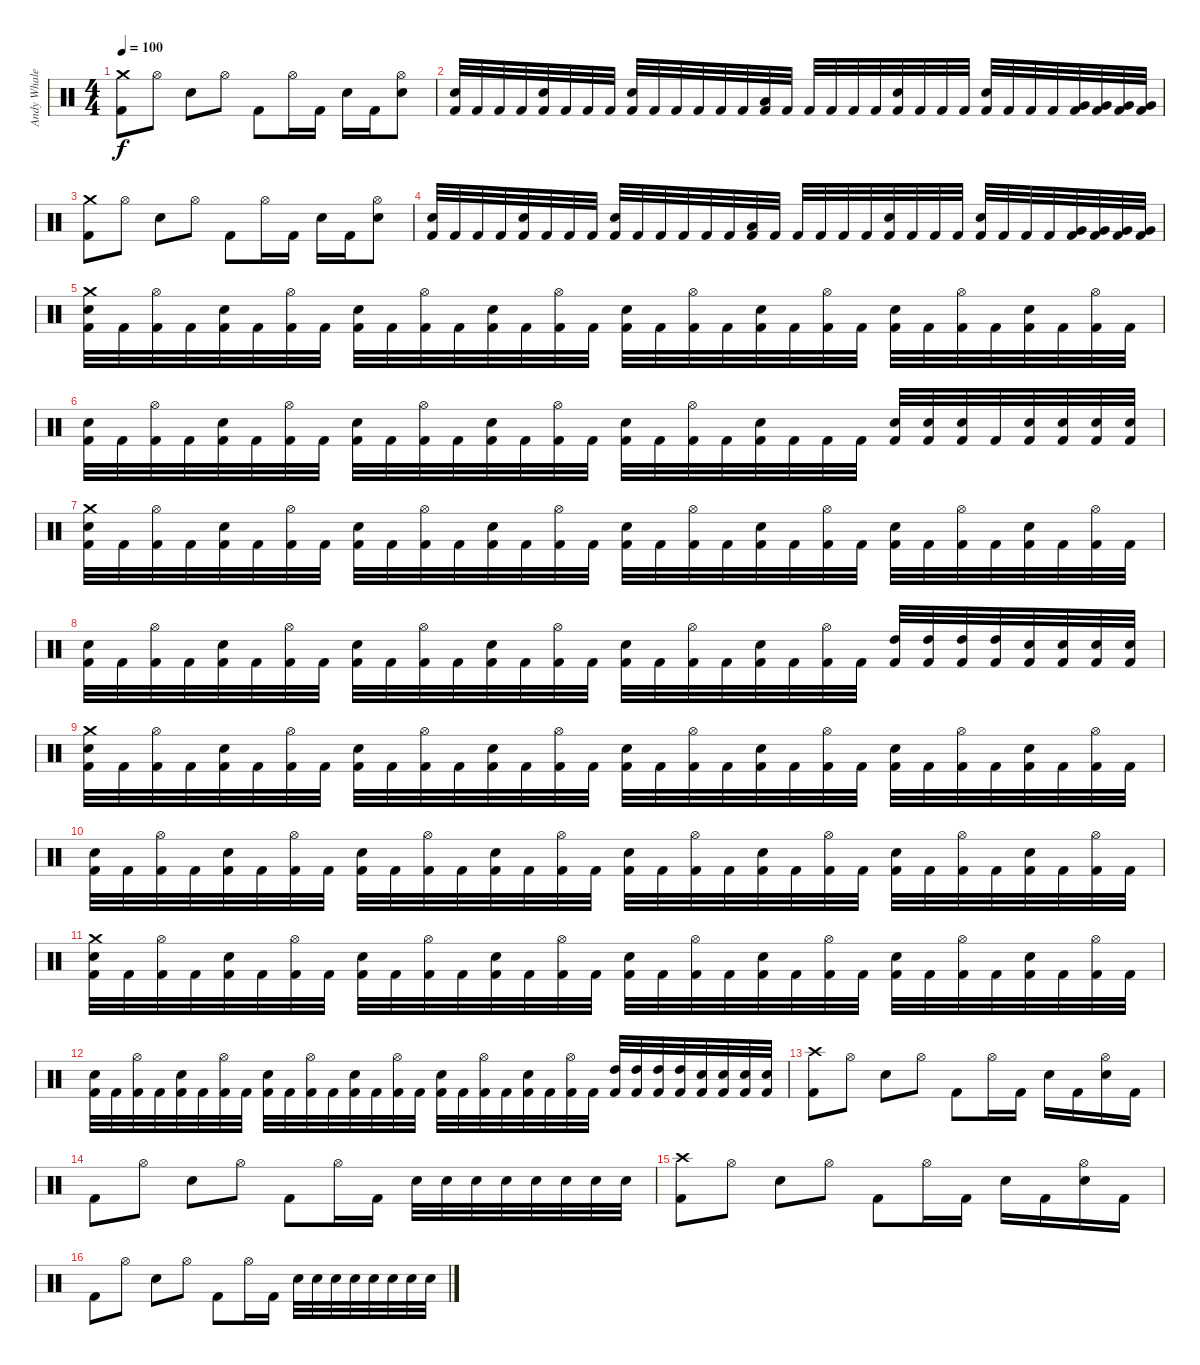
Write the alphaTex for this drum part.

\track ("Andy Whale" "Andy Whale") {instrument percussion}
\staff {score}
\articulation defaults
\ts (4 4)
\tempo 100
\clef neutral
\ks c
("Crash medium (hit)" "Kick (hit) 2").8{dy f} "Hi-Hat (open)".8 "Snare (hit) 2".8 "Hi-Hat (open)".8 "Kick (hit) 2".8 "Hi-Hat (open)".16 "Kick (hit) 2".16 "Snare (hit) 2".16 "Kick (hit) 2".16 ("Hi-Hat (open)" "Snare (hit) 2").8 |
("Snare (hit) 2" "Kick (hit) 2").32 "Kick (hit) 2".32 "Kick (hit) 2".32 "Kick (hit) 2".32 ("Snare (hit) 2" "Kick (hit) 2").32 "Kick (hit) 2".32 "Kick (hit) 2".32 "Kick (hit) 2".32 ("Snare (hit) 2" "Kick (hit) 2").32 "Kick (hit) 2".32 "Kick (hit) 2".32 "Kick (hit) 2".32 "Kick (hit) 2".32 "Kick (hit) 2".32 ("Low Floor Tom (hit)" "Kick (hit) 2").32 "Kick (hit) 2".32 "Kick (hit) 2".32 "Kick (hit) 2".32 "Kick (hit) 2".32 "Kick (hit) 2".32 ("Snare (hit) 2" "Kick (hit) 2").32 "Kick (hit) 2".32 "Kick (hit) 2".32 "Kick (hit) 2".32 ("Snare (hit) 2" "Kick (hit) 2").32 "Kick (hit) 2".32 "Kick (hit) 2".32 "Kick (hit) 2".32 ("Very Low Tom (hit)" "Kick (hit) 2").32 ("Very Low Tom (hit)" "Kick (hit) 2").32 ("Very Low Tom (hit)" "Kick (hit) 2").32 ("Very Low Tom (hit)" "Kick (hit) 2").32 |
("Crash medium (hit)" "Kick (hit) 2").8 "Hi-Hat (open)".8 "Snare (hit) 2".8 "Hi-Hat (open)".8 "Kick (hit) 2".8 "Hi-Hat (open)".16 "Kick (hit) 2".16 "Snare (hit) 2".16 "Kick (hit) 2".16 ("Hi-Hat (open)" "Snare (hit) 2").8 |
("Snare (hit) 2" "Kick (hit) 2").32 "Kick (hit) 2".32 "Kick (hit) 2".32 "Kick (hit) 2".32 ("Snare (hit) 2" "Kick (hit) 2").32 "Kick (hit) 2".32 "Kick (hit) 2".32 "Kick (hit) 2".32 ("Snare (hit) 2" "Kick (hit) 2").32 "Kick (hit) 2".32 "Kick (hit) 2".32 "Kick (hit) 2".32 "Kick (hit) 2".32 "Kick (hit) 2".32 ("Low Floor Tom (hit)" "Kick (hit) 2").32 "Kick (hit) 2".32 "Kick (hit) 2".32 "Kick (hit) 2".32 "Kick (hit) 2".32 "Kick (hit) 2".32 ("Snare (hit) 2" "Kick (hit) 2").32 "Kick (hit) 2".32 "Kick (hit) 2".32 "Kick (hit) 2".32 ("Snare (hit) 2" "Kick (hit) 2").32 "Kick (hit) 2".32 "Kick (hit) 2".32 "Kick (hit) 2".32 ("Very Low Tom (hit)" "Kick (hit) 2").32 ("Very Low Tom (hit)" "Kick (hit) 2").32 ("Very Low Tom (hit)" "Kick (hit) 2").32 ("Very Low Tom (hit)" "Kick (hit) 2").32 |
("Crash medium (hit)" "Snare (hit) 2" "Kick (hit) 2").32 "Kick (hit) 2".32 ("Hi-Hat (open)" "Kick (hit) 2").32 "Kick (hit) 2".32 ("Snare (hit) 2" "Kick (hit) 2").32 "Kick (hit) 2".32 ("Hi-Hat (open)" "Kick (hit) 2").32 "Kick (hit) 2".32 ("Snare (hit) 2" "Kick (hit) 2").32 "Kick (hit) 2".32 ("Hi-Hat (open)" "Kick (hit) 2").32 "Kick (hit) 2".32 ("Snare (hit) 2" "Kick (hit) 2").32 "Kick (hit) 2".32 ("Hi-Hat (open)" "Kick (hit) 2").32 "Kick (hit) 2".32 ("Snare (hit) 2" "Kick (hit) 2").32 "Kick (hit) 2".32 ("Hi-Hat (open)" "Kick (hit) 2").32 "Kick (hit) 2".32 ("Snare (hit) 2" "Kick (hit) 2").32 "Kick (hit) 2".32 ("Hi-Hat (open)" "Kick (hit) 2").32 "Kick (hit) 2".32 ("Snare (hit) 2" "Kick (hit) 2").32 "Kick (hit) 2".32 ("Hi-Hat (open)" "Kick (hit) 2").32 "Kick (hit) 2".32 ("Snare (hit) 2" "Kick (hit) 2").32 "Kick (hit) 2".32 ("Hi-Hat (open)" "Kick (hit) 2").32 "Kick (hit) 2".32 |
("Snare (hit) 2" "Kick (hit) 2").32 "Kick (hit) 2".32 ("Hi-Hat (open)" "Kick (hit) 2").32 "Kick (hit) 2".32 ("Snare (hit) 2" "Kick (hit) 2").32 "Kick (hit) 2".32 ("Hi-Hat (open)" "Kick (hit) 2").32 "Kick (hit) 2".32 ("Snare (hit) 2" "Kick (hit) 2").32 "Kick (hit) 2".32 ("Hi-Hat (open)" "Kick (hit) 2").32 "Kick (hit) 2".32 ("Snare (hit) 2" "Kick (hit) 2").32 "Kick (hit) 2".32 ("Hi-Hat (open)" "Kick (hit) 2").32 "Kick (hit) 2".32 ("Snare (hit) 2" "Kick (hit) 2").32 "Kick (hit) 2".32 ("Hi-Hat (open)" "Kick (hit) 2").32 "Kick (hit) 2".32 ("Snare (hit) 2" "Kick (hit) 2").32 "Kick (hit) 2".32 "Kick (hit) 2".32 "Kick (hit) 2".32 ("Snare (hit) 2" "Kick (hit) 2").32 ("Snare (hit) 2" "Kick (hit) 2").32 ("Snare (hit) 2" "Kick (hit) 2").32 "Kick (hit) 2".32 ("Snare (hit) 2" "Kick (hit) 2").32 ("Snare (hit) 2" "Kick (hit) 2").32 ("Snare (hit) 2" "Kick (hit) 2").32 ("Snare (hit) 2" "Kick (hit) 2").32 |
("Crash medium (hit)" "Snare (hit) 2" "Kick (hit) 2").32 "Kick (hit) 2".32 ("Hi-Hat (open)" "Kick (hit) 2").32 "Kick (hit) 2".32 ("Snare (hit) 2" "Kick (hit) 2").32 "Kick (hit) 2".32 ("Hi-Hat (open)" "Kick (hit) 2").32 "Kick (hit) 2".32 ("Snare (hit) 2" "Kick (hit) 2").32 "Kick (hit) 2".32 ("Hi-Hat (open)" "Kick (hit) 2").32 "Kick (hit) 2".32 ("Snare (hit) 2" "Kick (hit) 2").32 "Kick (hit) 2".32 ("Hi-Hat (open)" "Kick (hit) 2").32 "Kick (hit) 2".32 ("Snare (hit) 2" "Kick (hit) 2").32 "Kick (hit) 2".32 ("Hi-Hat (open)" "Kick (hit) 2").32 "Kick (hit) 2".32 ("Snare (hit) 2" "Kick (hit) 2").32 "Kick (hit) 2".32 ("Hi-Hat (open)" "Kick (hit) 2").32 "Kick (hit) 2".32 ("Snare (hit) 2" "Kick (hit) 2").32 "Kick (hit) 2".32 ("Hi-Hat (open)" "Kick (hit) 2").32 "Kick (hit) 2".32 ("Snare (hit) 2" "Kick (hit) 2").32 "Kick (hit) 2".32 ("Hi-Hat (open)" "Kick (hit) 2").32 "Kick (hit) 2".32 |
("Snare (hit) 2" "Kick (hit) 2").32 "Kick (hit) 2".32 ("Hi-Hat (open)" "Kick (hit) 2").32 "Kick (hit) 2".32 ("Snare (hit) 2" "Kick (hit) 2").32 "Kick (hit) 2".32 ("Hi-Hat (open)" "Kick (hit) 2").32 "Kick (hit) 2".32 ("Snare (hit) 2" "Kick (hit) 2").32 "Kick (hit) 2".32 ("Hi-Hat (open)" "Kick (hit) 2").32 "Kick (hit) 2".32 ("Snare (hit) 2" "Kick (hit) 2").32 "Kick (hit) 2".32 ("Hi-Hat (open)" "Kick (hit) 2").32 "Kick (hit) 2".32 ("Snare (hit) 2" "Kick (hit) 2").32 "Kick (hit) 2".32 ("Hi-Hat (open)" "Kick (hit) 2").32 "Kick (hit) 2".32 ("Snare (hit) 2" "Kick (hit) 2").32 "Kick (hit) 2".32 ("Hi-Hat (open)" "Kick (hit) 2").32 "Kick (hit) 2".32 ("High Tom (hit)" "Kick (hit) 2").32 ("High Tom (hit)" "Kick (hit) 2").32 ("High Tom (hit)" "Kick (hit) 2").32 ("High Tom (hit)" "Kick (hit) 2").32 ("Snare (hit) 2" "Kick (hit) 2").32 ("Snare (hit) 2" "Kick (hit) 2").32 ("Snare (hit) 2" "Kick (hit) 2").32 ("Snare (hit) 2" "Kick (hit) 2").32 |
("Crash medium (hit)" "Snare (hit) 2" "Kick (hit) 2").32 "Kick (hit) 2".32 ("Hi-Hat (open)" "Kick (hit) 2").32 "Kick (hit) 2".32 ("Snare (hit) 2" "Kick (hit) 2").32 "Kick (hit) 2".32 ("Hi-Hat (open)" "Kick (hit) 2").32 "Kick (hit) 2".32 ("Snare (hit) 2" "Kick (hit) 2").32 "Kick (hit) 2".32 ("Hi-Hat (open)" "Kick (hit) 2").32 "Kick (hit) 2".32 ("Snare (hit) 2" "Kick (hit) 2").32 "Kick (hit) 2".32 ("Hi-Hat (open)" "Kick (hit) 2").32 "Kick (hit) 2".32 ("Snare (hit) 2" "Kick (hit) 2").32 "Kick (hit) 2".32 ("Hi-Hat (open)" "Kick (hit) 2").32 "Kick (hit) 2".32 ("Snare (hit) 2" "Kick (hit) 2").32 "Kick (hit) 2".32 ("Hi-Hat (open)" "Kick (hit) 2").32 "Kick (hit) 2".32 ("Snare (hit) 2" "Kick (hit) 2").32 "Kick (hit) 2".32 ("Hi-Hat (open)" "Kick (hit) 2").32 "Kick (hit) 2".32 ("Snare (hit) 2" "Kick (hit) 2").32 "Kick (hit) 2".32 ("Hi-Hat (open)" "Kick (hit) 2").32 "Kick (hit) 2".32 |
("Snare (hit) 2" "Kick (hit) 2").32 "Kick (hit) 2".32 ("Hi-Hat (open)" "Kick (hit) 2").32 "Kick (hit) 2".32 ("Snare (hit) 2" "Kick (hit) 2").32 "Kick (hit) 2".32 ("Hi-Hat (open)" "Kick (hit) 2").32 "Kick (hit) 2".32 ("Snare (hit) 2" "Kick (hit) 2").32 "Kick (hit) 2".32 ("Hi-Hat (open)" "Kick (hit) 2").32 "Kick (hit) 2".32 ("Snare (hit) 2" "Kick (hit) 2").32 "Kick (hit) 2".32 ("Hi-Hat (open)" "Kick (hit) 2").32 "Kick (hit) 2".32 ("Snare (hit) 2" "Kick (hit) 2").32 "Kick (hit) 2".32 ("Hi-Hat (open)" "Kick (hit) 2").32 "Kick (hit) 2".32 ("Snare (hit) 2" "Kick (hit) 2").32 "Kick (hit) 2".32 ("Hi-Hat (open)" "Kick (hit) 2").32 "Kick (hit) 2".32 ("Snare (hit) 2" "Kick (hit) 2").32 "Kick (hit) 2".32 ("Hi-Hat (open)" "Kick (hit) 2").32 "Kick (hit) 2".32 ("Snare (hit) 2" "Kick (hit) 2").32 "Kick (hit) 2".32 ("Hi-Hat (open)" "Kick (hit) 2").32 "Kick (hit) 2".32 |
("Crash medium (hit)" "Snare (hit) 2" "Kick (hit) 2").32 "Kick (hit) 2".32 ("Hi-Hat (open)" "Kick (hit) 2").32 "Kick (hit) 2".32 ("Snare (hit) 2" "Kick (hit) 2").32 "Kick (hit) 2".32 ("Hi-Hat (open)" "Kick (hit) 2").32 "Kick (hit) 2".32 ("Snare (hit) 2" "Kick (hit) 2").32 "Kick (hit) 2".32 ("Hi-Hat (open)" "Kick (hit) 2").32 "Kick (hit) 2".32 ("Snare (hit) 2" "Kick (hit) 2").32 "Kick (hit) 2".32 ("Hi-Hat (open)" "Kick (hit) 2").32 "Kick (hit) 2".32 ("Snare (hit) 2" "Kick (hit) 2").32 "Kick (hit) 2".32 ("Hi-Hat (open)" "Kick (hit) 2").32 "Kick (hit) 2".32 ("Snare (hit) 2" "Kick (hit) 2").32 "Kick (hit) 2".32 ("Hi-Hat (open)" "Kick (hit) 2").32 "Kick (hit) 2".32 ("Snare (hit) 2" "Kick (hit) 2").32 "Kick (hit) 2".32 ("Hi-Hat (open)" "Kick (hit) 2").32 "Kick (hit) 2".32 ("Snare (hit) 2" "Kick (hit) 2").32 "Kick (hit) 2".32 ("Hi-Hat (open)" "Kick (hit) 2").32 "Kick (hit) 2".32 |
("Snare (hit) 2" "Kick (hit) 2").32 "Kick (hit) 2".32 ("Hi-Hat (open)" "Kick (hit) 2").32 "Kick (hit) 2".32 ("Snare (hit) 2" "Kick (hit) 2").32 "Kick (hit) 2".32 ("Hi-Hat (open)" "Kick (hit) 2").32 "Kick (hit) 2".32 ("Snare (hit) 2" "Kick (hit) 2").32 "Kick (hit) 2".32 ("Hi-Hat (open)" "Kick (hit) 2").32 "Kick (hit) 2".32 ("Snare (hit) 2" "Kick (hit) 2").32 "Kick (hit) 2".32 ("Hi-Hat (open)" "Kick (hit) 2").32 "Kick (hit) 2".32 ("Snare (hit) 2" "Kick (hit) 2").32 "Kick (hit) 2".32 ("Hi-Hat (open)" "Kick (hit) 2").32 "Kick (hit) 2".32 ("Snare (hit) 2" "Kick (hit) 2").32 "Kick (hit) 2".32 ("Hi-Hat (open)" "Kick (hit) 2").32 "Kick (hit) 2".32 ("High Tom (hit)" "Kick (hit) 2").32 ("High Tom (hit)" "Kick (hit) 2").32 ("High Tom (hit)" "Kick (hit) 2").32 ("High Tom (hit)" "Kick (hit) 2").32 ("Snare (hit) 2" "Kick (hit) 2").32 ("Snare (hit) 2" "Kick (hit) 2").32 ("Snare (hit) 2" "Kick (hit) 2").32 ("Snare (hit) 2" "Kick (hit) 2").32 |
("Crash high (hit)" "Kick (hit) 2").8 "Hi-Hat (open)".8 "Snare (hit) 2".8 "Hi-Hat (open)".8 "Kick (hit) 2".8 "Hi-Hat (open)".16 "Kick (hit) 2".16 "Snare (hit) 2".16 "Kick (hit) 2".16 ("Hi-Hat (open)" "Snare (hit) 2").16 "Kick (hit) 2".16 |
"Kick (hit) 2".8 "Hi-Hat (open)".8 "Snare (hit) 2".8 "Hi-Hat (open)".8 "Kick (hit) 2".8 "Hi-Hat (open)".16 "Kick (hit) 2".16 "Snare (hit) 2".32 "Snare (hit) 2".32 "Snare (hit) 2".32 "Snare (hit) 2".32 "Snare (hit) 2".32 "Snare (hit) 2".32 "Snare (hit) 2".32 "Snare (hit) 2".32 |
("Crash high (hit)" "Kick (hit) 2").8 "Hi-Hat (open)".8 "Snare (hit) 2".8 "Hi-Hat (open)".8 "Kick (hit) 2".8 "Hi-Hat (open)".16 "Kick (hit) 2".16 "Snare (hit) 2".16 "Kick (hit) 2".16 ("Hi-Hat (open)" "Snare (hit) 2").16 "Kick (hit) 2".16 |
"Kick (hit) 2".8 "Hi-Hat (open)".8 "Snare (hit) 2".8 "Hi-Hat (open)".8 "Kick (hit) 2".8 "Hi-Hat (open)".16 "Kick (hit) 2".16 "Snare (hit) 2".32 "Snare (hit) 2".32 "Snare (hit) 2".32 "Snare (hit) 2".32 "Snare (hit) 2".32 "Snare (hit) 2".32 "Snare (hit) 2".32 "Snare (hit) 2".32
